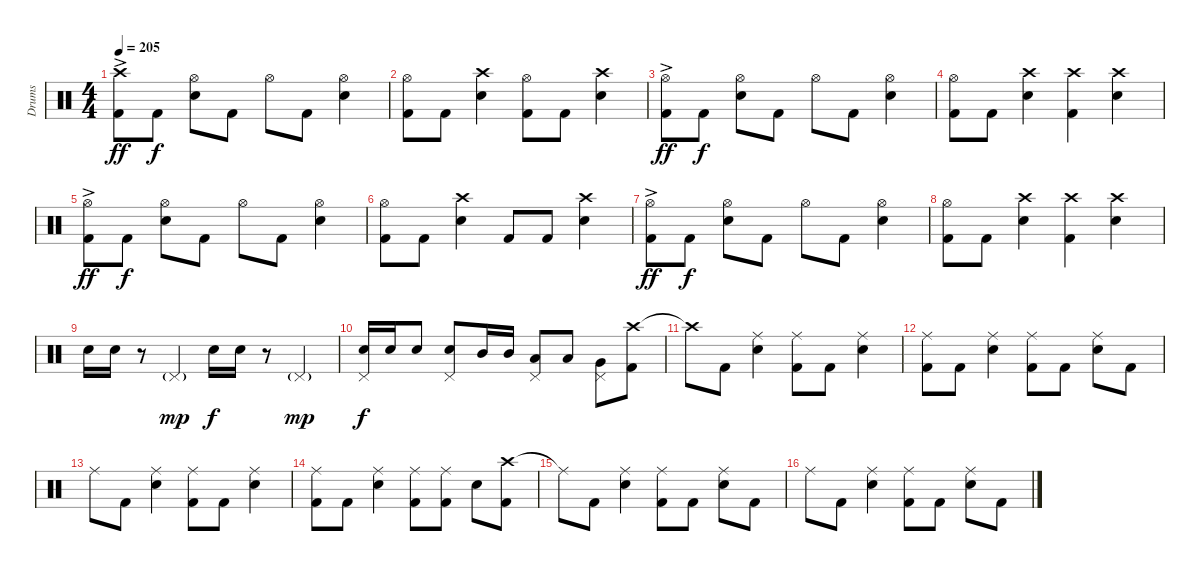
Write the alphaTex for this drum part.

\track ("Drums" "Drums") {instrument percussion}
\staff {score}
\articulation defaults
\ts (4 4)
\tempo 205
\clef neutral
\ks c
("Crash high (hit)"{ac} "Kick (hit) 2").8{dy ff} "Kick (hit) 2".8{dy f} ("Hi-Hat (open)" "Electric Snare (hit)").8 "Kick (hit) 2".8 "Hi-Hat (open)".8 "Kick (hit) 2".8 ("Hi-Hat (open)" "Electric Snare (hit)").4 |
("Hi-Hat (open)" "Kick (hit) 2").8 "Kick (hit) 2".8 ("Crash high (hit)" "Electric Snare (hit)").4 ("Hi-Hat (open)" "Kick (hit) 2").8 "Kick (hit) 2".8 ("Crash high (hit)" "Electric Snare (hit)").4 |
("Hi-Hat (open)"{ac} "Kick (hit) 2").8{dy ff} "Kick (hit) 2".8{dy f} ("Hi-Hat (open)" "Electric Snare (hit)").8 "Kick (hit) 2".8 "Hi-Hat (open)".8 "Kick (hit) 2".8 ("Hi-Hat (open)" "Electric Snare (hit)").4 |
("Hi-Hat (open)" "Kick (hit) 2").8 "Kick (hit) 2".8 ("Crash high (hit)" "Electric Snare (hit)").4 ("Crash high (hit)" "Kick (hit) 2").4 ("Crash high (hit)" "Electric Snare (hit)").4 |
("Hi-Hat (open)"{ac} "Kick (hit) 2").8{dy ff} "Kick (hit) 2".8{dy f} ("Hi-Hat (open)" "Electric Snare (hit)").8 "Kick (hit) 2".8 "Hi-Hat (open)".8 "Kick (hit) 2".8 ("Hi-Hat (open)" "Electric Snare (hit)").4 |
("Hi-Hat (open)" "Kick (hit) 2").8 "Kick (hit) 2".8 ("Crash high (hit)" "Electric Snare (hit)").4 "Kick (hit) 2".8 "Kick (hit) 2".8 ("Crash high (hit)" "Electric Snare (hit)").4 |
("Hi-Hat (open)"{ac} "Kick (hit) 2").8{dy ff} "Kick (hit) 2".8{dy f} ("Hi-Hat (open)" "Electric Snare (hit)").8 "Kick (hit) 2".8 "Hi-Hat (open)".8 "Kick (hit) 2".8 ("Hi-Hat (open)" "Electric Snare (hit)").4 |
("Hi-Hat (open)" "Kick (hit) 2").8 "Kick (hit) 2".8 ("Crash high (hit)" "Electric Snare (hit)").4 ("Crash high (hit)" "Kick (hit) 2").4 ("Crash high (hit)" "Electric Snare (hit)").4 |
"Electric Snare (hit)".16 "Electric Snare (hit)".16 r.8 "Pedal Hi-Hat (hit)"{g}.4{dy mp} "Electric Snare (hit)".16{dy f} "Electric Snare (hit)".16 r.8 "Pedal Hi-Hat (hit)"{g}.4{dy mp} |
("Pedal Hi-Hat (hit)" "Electric Snare (hit)").16{dy f} "Electric Snare (hit)".16 "Electric Snare (hit)".8 ("Pedal Hi-Hat (hit)" "Electric Snare (hit)").8 "Mid Tom (hit)".16 "Mid Tom (hit)".16 ("Pedal Hi-Hat (hit)" "Low Tom (hit)").8 "Low Tom (hit)".8 ("Pedal Hi-Hat (hit)" "Very Low Tom (hit)").8 ("Crash high (hit)" "Kick (hit) 2").8 |
"Crash high (hit)"{t}.8 "Kick (hit) 2".8 ("Ride (middle)" "Electric Snare (hit)").4 ("Ride (middle)" "Kick (hit) 2").8 "Kick (hit) 2".8 ("Ride (middle)" "Electric Snare (hit)").4 |
("Ride (middle)" "Kick (hit) 2").8 "Kick (hit) 2".8 ("Ride (middle)" "Electric Snare (hit)").4 ("Ride (middle)" "Kick (hit) 2").8 "Kick (hit) 2".8 ("Ride (middle)" "Electric Snare (hit)").8 "Kick (hit) 2".8 |
"Ride (middle)".8 "Kick (hit) 2".8 ("Ride (middle)" "Electric Snare (hit)").4 ("Ride (middle)" "Kick (hit) 2").8 "Kick (hit) 2".8 ("Ride (middle)" "Electric Snare (hit)").4 |
("Ride (middle)" "Kick (hit) 2").8 "Kick (hit) 2".8 ("Ride (middle)" "Electric Snare (hit)").4 ("Ride (middle)" "Kick (hit) 2").8 ("Ride (middle)" "Kick (hit) 2").8 "Electric Snare (hit)".8 ("Crash high (hit)" "Kick (hit) 2").8 |
"Ride (middle)"{t}.8 "Kick (hit) 2".8 ("Ride (middle)" "Electric Snare (hit)").4 ("Ride (middle)" "Kick (hit) 2").8 "Kick (hit) 2".8 ("Ride (middle)" "Electric Snare (hit)").8 "Kick (hit) 2".8 |
"Ride (middle)".8 "Kick (hit) 2".8 ("Ride (middle)" "Electric Snare (hit)").4 ("Ride (middle)" "Kick (hit) 2").8 "Kick (hit) 2".8 ("Ride (middle)" "Electric Snare (hit)").8 "Kick (hit) 2".8
